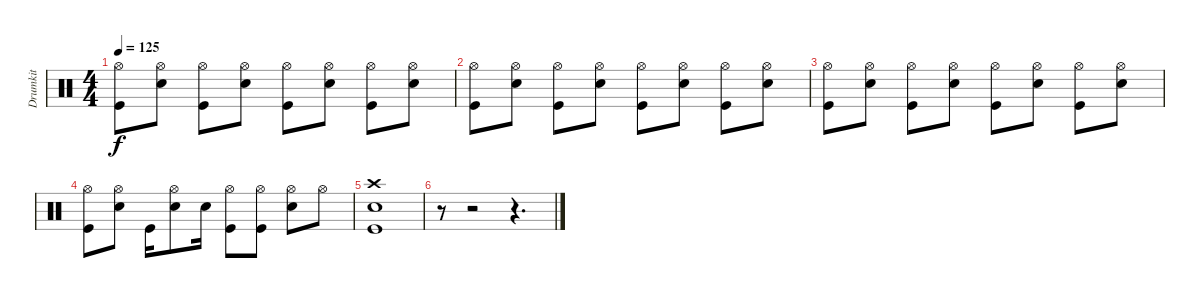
\track ("Drumkit" "Drumkit") {instrument percussion}
\staff {score}
\articulation defaults
\ts (4 4)
\tempo 125
\clef neutral
\ks c
("Hi-Hat (open)" "Kick (hit)").8{dy f} ("Hi-Hat (open)" "Snare (hit) 2").8 ("Hi-Hat (open)" "Kick (hit)").8 ("Hi-Hat (open)" "Snare (hit) 2").8 ("Hi-Hat (open)" "Kick (hit)").8 ("Hi-Hat (open)" "Snare (hit) 2").8 ("Hi-Hat (open)" "Kick (hit)").8 ("Hi-Hat (open)" "Snare (hit) 2").8 |
("Hi-Hat (open)" "Kick (hit)").8 ("Hi-Hat (open)" "Snare (hit) 2").8 ("Hi-Hat (open)" "Kick (hit)").8 ("Hi-Hat (open)" "Snare (hit) 2").8 ("Hi-Hat (open)" "Kick (hit)").8 ("Hi-Hat (open)" "Snare (hit) 2").8 ("Hi-Hat (open)" "Kick (hit)").8 ("Hi-Hat (open)" "Snare (hit) 2").8 |
("Hi-Hat (open)" "Kick (hit)").8 ("Hi-Hat (open)" "Snare (hit) 2").8 ("Hi-Hat (open)" "Kick (hit)").8 ("Hi-Hat (open)" "Snare (hit) 2").8 ("Hi-Hat (open)" "Kick (hit)").8 ("Hi-Hat (open)" "Snare (hit) 2").8 ("Hi-Hat (open)" "Kick (hit)").8 ("Hi-Hat (open)" "Snare (hit) 2").8 |
("Hi-Hat (open)" "Kick (hit)").8 ("Hi-Hat (open)" "Snare (hit) 2").8 "Kick (hit)".16 ("Hi-Hat (open)" "Snare (hit) 2").8 "Snare (hit) 2".16 ("Hi-Hat (open)" "Kick (hit)").8 ("Hi-Hat (open)" "Kick (hit)").8 ("Hi-Hat (open)" "Snare (hit) 2").8 "Hi-Hat (open)".8 |
("Crash high (hit)" "Snare (hit) 2" "Kick (hit)").1 |
r.8 r.2 r.4{d}
